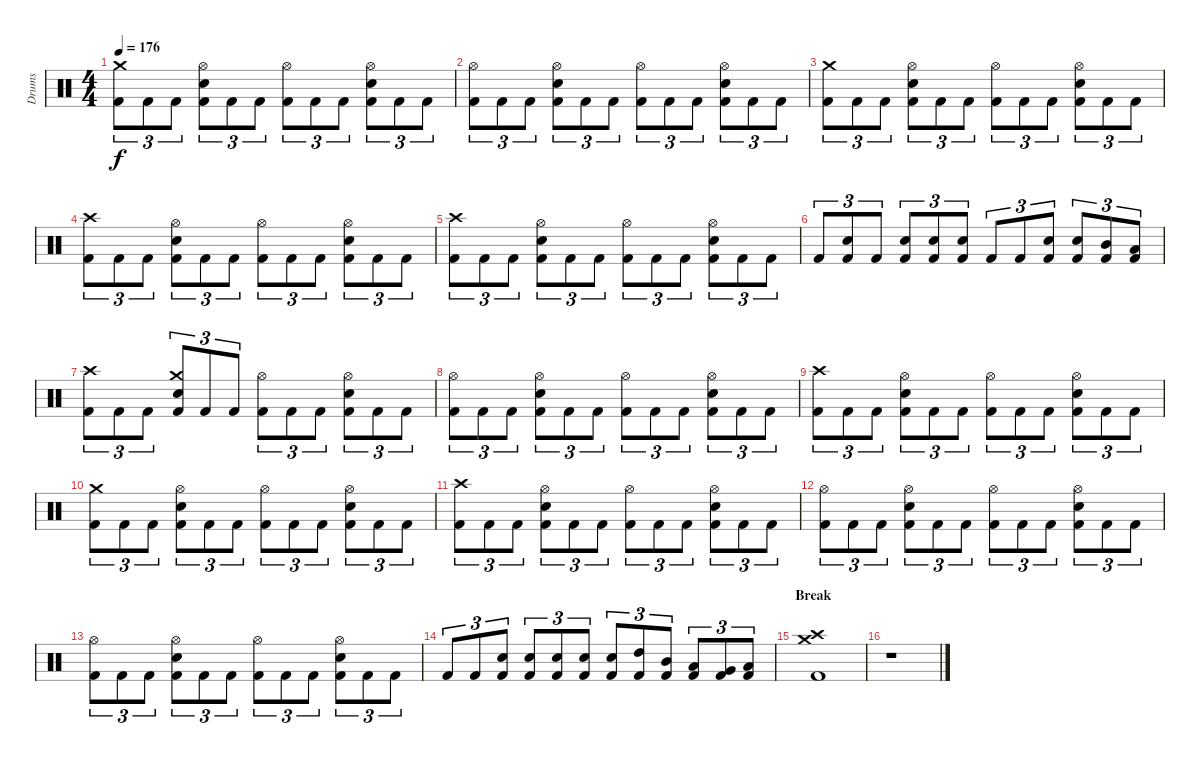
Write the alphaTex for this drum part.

\track ("Drums" "Drums") {instrument percussion}
\staff {score}
\articulation defaults
\ts (4 4)
\tempo 176
\clef neutral
\ks c
("Kick (hit) 2" "Crash medium (hit)").8{tu (3 2) dy f} "Kick (hit) 2".8{tu (3 2)} "Kick (hit) 2".8{tu (3 2)} ("Kick (hit) 2" "Electric Snare (hit)" "Hi-Hat (open)").8{tu (3 2)} "Kick (hit) 2".8{tu (3 2)} "Kick (hit) 2".8{tu (3 2)} ("Kick (hit) 2" "Hi-Hat (open)").8{tu (3 2)} "Kick (hit) 2".8{tu (3 2)} "Kick (hit) 2".8{tu (3 2)} ("Kick (hit) 2" "Electric Snare (hit)" "Hi-Hat (open)").8{tu (3 2)} "Kick (hit) 2".8{tu (3 2)} "Kick (hit) 2".8{tu (3 2)} |
("Kick (hit) 2" "Hi-Hat (open)").8{tu (3 2)} "Kick (hit) 2".8{tu (3 2)} "Kick (hit) 2".8{tu (3 2)} ("Kick (hit) 2" "Electric Snare (hit)" "Hi-Hat (open)").8{tu (3 2)} "Kick (hit) 2".8{tu (3 2)} "Kick (hit) 2".8{tu (3 2)} ("Kick (hit) 2" "Hi-Hat (open)").8{tu (3 2)} "Kick (hit) 2".8{tu (3 2)} "Kick (hit) 2".8{tu (3 2)} ("Kick (hit) 2" "Electric Snare (hit)" "Hi-Hat (open)").8{tu (3 2)} "Kick (hit) 2".8{tu (3 2)} "Kick (hit) 2".8{tu (3 2)} |
("Kick (hit) 2" "Crash medium (hit)").8{tu (3 2)} "Kick (hit) 2".8{tu (3 2)} "Kick (hit) 2".8{tu (3 2)} ("Kick (hit) 2" "Electric Snare (hit)" "Hi-Hat (open)").8{tu (3 2)} "Kick (hit) 2".8{tu (3 2)} "Kick (hit) 2".8{tu (3 2)} ("Kick (hit) 2" "Hi-Hat (open)").8{tu (3 2)} "Kick (hit) 2".8{tu (3 2)} "Kick (hit) 2".8{tu (3 2)} ("Kick (hit) 2" "Electric Snare (hit)" "Hi-Hat (open)").8{tu (3 2)} "Kick (hit) 2".8{tu (3 2)} "Kick (hit) 2".8{tu (3 2)} |
("Kick (hit) 2" "Crash high (hit)").8{tu (3 2)} "Kick (hit) 2".8{tu (3 2)} "Kick (hit) 2".8{tu (3 2)} ("Kick (hit) 2" "Electric Snare (hit)" "Hi-Hat (open)").8{tu (3 2)} "Kick (hit) 2".8{tu (3 2)} "Kick (hit) 2".8{tu (3 2)} ("Kick (hit) 2" "Hi-Hat (open)").8{tu (3 2)} "Kick (hit) 2".8{tu (3 2)} "Kick (hit) 2".8{tu (3 2)} ("Kick (hit) 2" "Electric Snare (hit)" "Hi-Hat (open)").8{tu (3 2)} "Kick (hit) 2".8{tu (3 2)} "Kick (hit) 2".8{tu (3 2)} |
("Kick (hit) 2" "Crash high (hit)").8{tu (3 2)} "Kick (hit) 2".8{tu (3 2)} "Kick (hit) 2".8{tu (3 2)} ("Kick (hit) 2" "Electric Snare (hit)" "Hi-Hat (open)").8{tu (3 2)} "Kick (hit) 2".8{tu (3 2)} "Kick (hit) 2".8{tu (3 2)} ("Kick (hit) 2" "Hi-Hat (open)").8{tu (3 2)} "Kick (hit) 2".8{tu (3 2)} "Kick (hit) 2".8{tu (3 2)} ("Kick (hit) 2" "Electric Snare (hit)" "Hi-Hat (open)").8{tu (3 2)} "Kick (hit) 2".8{tu (3 2)} "Kick (hit) 2".8{tu (3 2)} |
"Kick (hit) 2".8{tu (3 2)} ("Kick (hit) 2" "Electric Snare (hit)").8{tu (3 2)} "Kick (hit) 2".8{tu (3 2)} ("Kick (hit) 2" "Electric Snare (hit)").8{tu (3 2)} ("Kick (hit) 2" "Electric Snare (hit)").8{tu (3 2)} ("Kick (hit) 2" "Electric Snare (hit)").8{tu (3 2)} "Kick (hit) 2".8{tu (3 2)} "Kick (hit) 2".8{tu (3 2)} ("Kick (hit) 2" "Electric Snare (hit)").8{tu (3 2)} ("Kick (hit) 2" "Electric Snare (hit)").8{tu (3 2)} ("Kick (hit) 2" "Mid Tom (hit)").8{tu (3 2)} ("Kick (hit) 2" "Low Tom (hit)").8{tu (3 2)} |
("Kick (hit) 2" "Crash high (hit)").8{tu (3 2)} "Kick (hit) 2".8{tu (3 2)} "Kick (hit) 2".8{tu (3 2)} ("Kick (hit) 2" "Electric Snare (hit)" "Crash medium (hit)").8{tu (3 2)} "Kick (hit) 2".8{tu (3 2)} "Kick (hit) 2".8{tu (3 2)} ("Kick (hit) 2" "Hi-Hat (open)").8{tu (3 2)} "Kick (hit) 2".8{tu (3 2)} "Kick (hit) 2".8{tu (3 2)} ("Kick (hit) 2" "Electric Snare (hit)" "Hi-Hat (open)").8{tu (3 2)} "Kick (hit) 2".8{tu (3 2)} "Kick (hit) 2".8{tu (3 2)} |
("Kick (hit) 2" "Hi-Hat (open)").8{tu (3 2)} "Kick (hit) 2".8{tu (3 2)} "Kick (hit) 2".8{tu (3 2)} ("Kick (hit) 2" "Electric Snare (hit)" "Hi-Hat (open)").8{tu (3 2)} "Kick (hit) 2".8{tu (3 2)} "Kick (hit) 2".8{tu (3 2)} ("Kick (hit) 2" "Hi-Hat (open)").8{tu (3 2)} "Kick (hit) 2".8{tu (3 2)} "Kick (hit) 2".8{tu (3 2)} ("Kick (hit) 2" "Electric Snare (hit)" "Hi-Hat (open)").8{tu (3 2)} "Kick (hit) 2".8{tu (3 2)} "Kick (hit) 2".8{tu (3 2)} |
("Kick (hit) 2" "Crash high (hit)").8{tu (3 2)} "Kick (hit) 2".8{tu (3 2)} "Kick (hit) 2".8{tu (3 2)} ("Kick (hit) 2" "Electric Snare (hit)" "Hi-Hat (open)").8{tu (3 2)} "Kick (hit) 2".8{tu (3 2)} "Kick (hit) 2".8{tu (3 2)} ("Kick (hit) 2" "Hi-Hat (open)").8{tu (3 2)} "Kick (hit) 2".8{tu (3 2)} "Kick (hit) 2".8{tu (3 2)} ("Kick (hit) 2" "Electric Snare (hit)" "Hi-Hat (open)").8{tu (3 2)} "Kick (hit) 2".8{tu (3 2)} "Kick (hit) 2".8{tu (3 2)} |
("Kick (hit) 2" "Crash medium (hit)").8{tu (3 2)} "Kick (hit) 2".8{tu (3 2)} "Kick (hit) 2".8{tu (3 2)} ("Kick (hit) 2" "Electric Snare (hit)" "Hi-Hat (open)").8{tu (3 2)} "Kick (hit) 2".8{tu (3 2)} "Kick (hit) 2".8{tu (3 2)} ("Kick (hit) 2" "Hi-Hat (open)").8{tu (3 2)} "Kick (hit) 2".8{tu (3 2)} "Kick (hit) 2".8{tu (3 2)} ("Kick (hit) 2" "Electric Snare (hit)" "Hi-Hat (open)").8{tu (3 2)} "Kick (hit) 2".8{tu (3 2)} "Kick (hit) 2".8{tu (3 2)} |
("Kick (hit) 2" "Crash high (hit)").8{tu (3 2)} "Kick (hit) 2".8{tu (3 2)} "Kick (hit) 2".8{tu (3 2)} ("Kick (hit) 2" "Electric Snare (hit)" "Hi-Hat (open)").8{tu (3 2)} "Kick (hit) 2".8{tu (3 2)} "Kick (hit) 2".8{tu (3 2)} ("Kick (hit) 2" "Hi-Hat (open)").8{tu (3 2)} "Kick (hit) 2".8{tu (3 2)} "Kick (hit) 2".8{tu (3 2)} ("Kick (hit) 2" "Electric Snare (hit)" "Hi-Hat (open)").8{tu (3 2)} "Kick (hit) 2".8{tu (3 2)} "Kick (hit) 2".8{tu (3 2)} |
("Kick (hit) 2" "Hi-Hat (open)").8{tu (3 2)} "Kick (hit) 2".8{tu (3 2)} "Kick (hit) 2".8{tu (3 2)} ("Kick (hit) 2" "Electric Snare (hit)" "Hi-Hat (open)").8{tu (3 2)} "Kick (hit) 2".8{tu (3 2)} "Kick (hit) 2".8{tu (3 2)} ("Kick (hit) 2" "Hi-Hat (open)").8{tu (3 2)} "Kick (hit) 2".8{tu (3 2)} "Kick (hit) 2".8{tu (3 2)} ("Kick (hit) 2" "Electric Snare (hit)" "Hi-Hat (open)").8{tu (3 2)} "Kick (hit) 2".8{tu (3 2)} "Kick (hit) 2".8{tu (3 2)} |
("Kick (hit) 2" "Hi-Hat (open)").8{tu (3 2)} "Kick (hit) 2".8{tu (3 2)} "Kick (hit) 2".8{tu (3 2)} ("Kick (hit) 2" "Electric Snare (hit)" "Hi-Hat (open)").8{tu (3 2)} "Kick (hit) 2".8{tu (3 2)} "Kick (hit) 2".8{tu (3 2)} ("Kick (hit) 2" "Hi-Hat (open)").8{tu (3 2)} "Kick (hit) 2".8{tu (3 2)} "Kick (hit) 2".8{tu (3 2)} ("Kick (hit) 2" "Electric Snare (hit)" "Hi-Hat (open)").8{tu (3 2)} "Kick (hit) 2".8{tu (3 2)} "Kick (hit) 2".8{tu (3 2)} |
"Kick (hit) 2".8{tu (3 2)} "Kick (hit) 2".8{tu (3 2)} ("Kick (hit) 2" "Electric Snare (hit)").8{tu (3 2)} ("Kick (hit) 2" "Electric Snare (hit)").8{tu (3 2)} ("Kick (hit) 2" "Electric Snare (hit)").8{tu (3 2)} ("Kick (hit) 2" "Electric Snare (hit)").8{tu (3 2)} ("Kick (hit) 2" "Electric Snare (hit)").8{tu (3 2)} ("Kick (hit) 2" "High Tom (hit)").8{tu (3 2)} ("Kick (hit) 2" "Mid Tom (hit)").8{tu (3 2)} ("Kick (hit) 2" "Low Tom (hit)").8{tu (3 2)} ("Kick (hit) 2" "Very Low Tom (hit)").8{tu (3 2)} ("Kick (hit) 2" "Low Floor Tom (hit)").8{tu (3 2)} |
\section ("" "Break")
("Kick (hit) 2" "Crash high (hit)" "Crash medium (hit)").1 |
r.1
